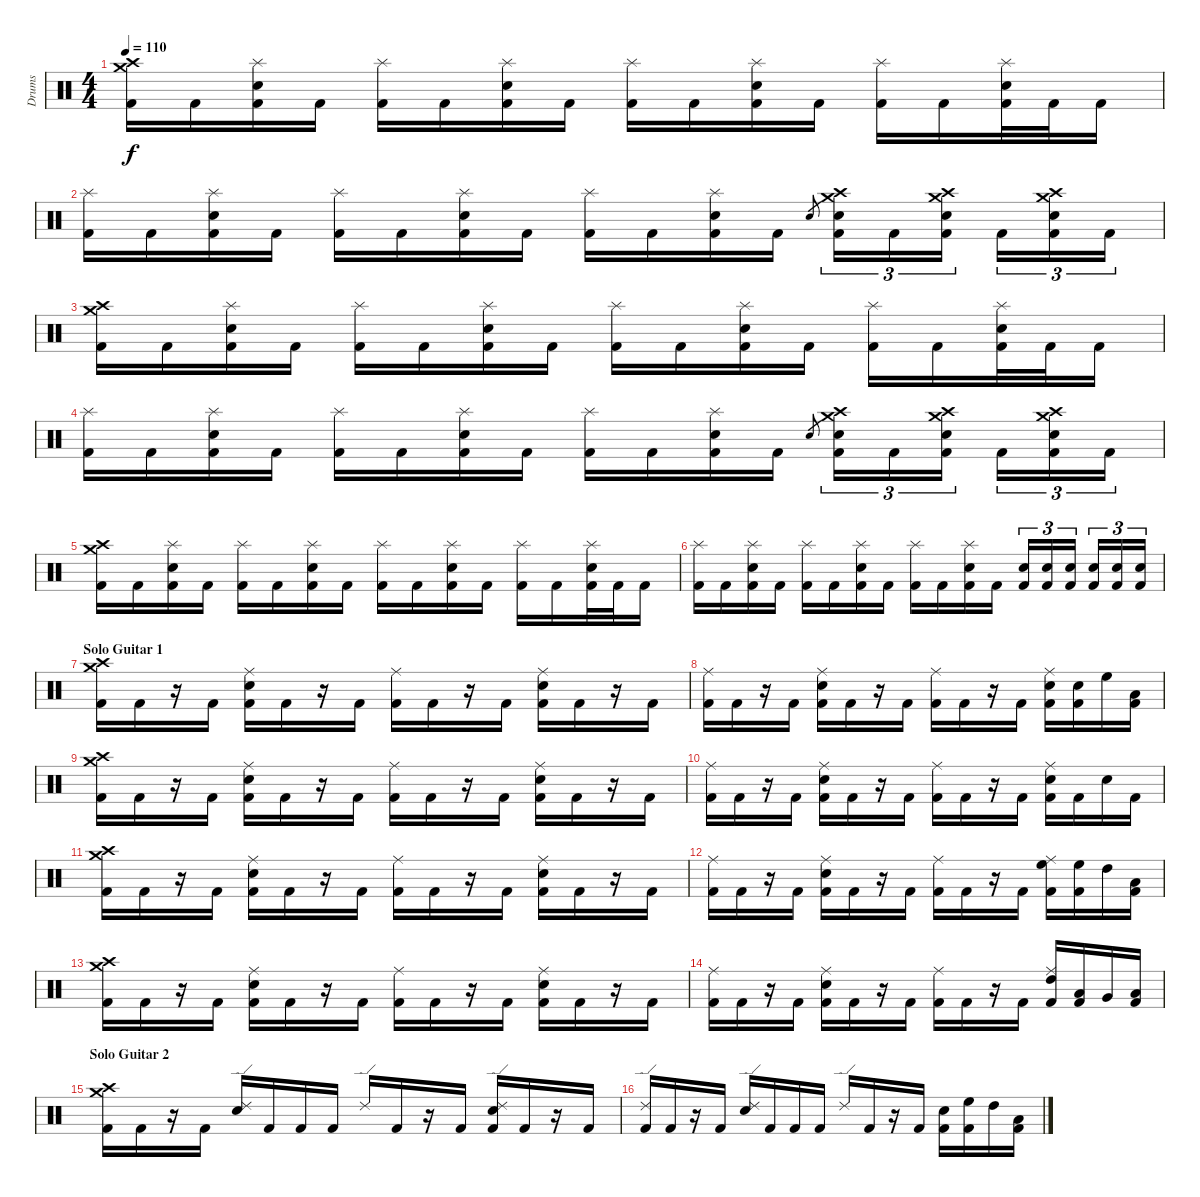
\track ("Drums" "Drums") {instrument percussion}
\staff {score}
\articulation defaults
\ts (4 4)
\tempo 110
\clef neutral
\ks c
("Crash medium (hit)" "Crash high (hit)" "Kick (hit) 2").16{dy f} "Kick (hit) 2".16 ("Splash (hit)" "Electric Snare (hit)" "Kick (hit) 2").16 "Kick (hit) 2".16 ("Splash (hit)" "Kick (hit) 2").16 "Kick (hit) 2".16 ("Splash (hit)" "Electric Snare (hit)" "Kick (hit) 2").16 "Kick (hit) 2".16 ("Splash (hit)" "Kick (hit) 2").16 "Kick (hit) 2".16 ("Splash (hit)" "Electric Snare (hit)" "Kick (hit) 2").16 "Kick (hit) 2".16 ("Splash (hit)" "Kick (hit) 2").16 "Kick (hit) 2".16 ("Splash (hit)" "Electric Snare (hit)" "Kick (hit) 2").32 "Kick (hit) 2".32 "Kick (hit) 2".16 |
("Splash (hit)" "Kick (hit) 2").16 "Kick (hit) 2".16 ("Splash (hit)" "Electric Snare (hit)" "Kick (hit) 2").16 "Kick (hit) 2".16 ("Splash (hit)" "Kick (hit) 2").16 "Kick (hit) 2".16 ("Splash (hit)" "Electric Snare (hit)" "Kick (hit) 2").16 "Kick (hit) 2".16 ("Splash (hit)" "Kick (hit) 2").16 "Kick (hit) 2".16 ("Splash (hit)" "Electric Snare (hit)" "Kick (hit) 2").16 "Kick (hit) 2".16 "Electric Snare (hit)".8{gr} ("Crash medium (hit)" "Crash high (hit)" "Electric Snare (hit)" "Kick (hit) 2").16{tu (3 2)} "Kick (hit) 2".16{tu (3 2)} ("Crash medium (hit)" "Crash high (hit)" "Electric Snare (hit)" "Kick (hit) 2").16{tu (3 2)} "Kick (hit) 2".16{tu (3 2)} ("Crash medium (hit)" "Crash high (hit)" "Electric Snare (hit)" "Kick (hit) 2").16{tu (3 2)} "Kick (hit) 2".16{tu (3 2)} |
("Crash medium (hit)" "Crash high (hit)" "Kick (hit) 2").16 "Kick (hit) 2".16 ("Splash (hit)" "Electric Snare (hit)" "Kick (hit) 2").16 "Kick (hit) 2".16 ("Splash (hit)" "Kick (hit) 2").16 "Kick (hit) 2".16 ("Splash (hit)" "Electric Snare (hit)" "Kick (hit) 2").16 "Kick (hit) 2".16 ("Splash (hit)" "Kick (hit) 2").16 "Kick (hit) 2".16 ("Splash (hit)" "Electric Snare (hit)" "Kick (hit) 2").16 "Kick (hit) 2".16 ("Splash (hit)" "Kick (hit) 2").16 "Kick (hit) 2".16 ("Splash (hit)" "Electric Snare (hit)" "Kick (hit) 2").32 "Kick (hit) 2".32 "Kick (hit) 2".16 |
("Splash (hit)" "Kick (hit) 2").16 "Kick (hit) 2".16 ("Splash (hit)" "Electric Snare (hit)" "Kick (hit) 2").16 "Kick (hit) 2".16 ("Splash (hit)" "Kick (hit) 2").16 "Kick (hit) 2".16 ("Splash (hit)" "Electric Snare (hit)" "Kick (hit) 2").16 "Kick (hit) 2".16 ("Splash (hit)" "Kick (hit) 2").16 "Kick (hit) 2".16 ("Splash (hit)" "Electric Snare (hit)" "Kick (hit) 2").16 "Kick (hit) 2".16 "Electric Snare (hit)".8{gr} ("Crash medium (hit)" "Crash high (hit)" "Electric Snare (hit)" "Kick (hit) 2").16{tu (3 2)} "Kick (hit) 2".16{tu (3 2)} ("Crash medium (hit)" "Crash high (hit)" "Electric Snare (hit)" "Kick (hit) 2").16{tu (3 2)} "Kick (hit) 2".16{tu (3 2)} ("Crash medium (hit)" "Crash high (hit)" "Electric Snare (hit)" "Kick (hit) 2").16{tu (3 2)} "Kick (hit) 2".16{tu (3 2)} |
("Crash medium (hit)" "Crash high (hit)" "Kick (hit) 2").16 "Kick (hit) 2".16 ("Splash (hit)" "Electric Snare (hit)" "Kick (hit) 2").16 "Kick (hit) 2".16 ("Splash (hit)" "Kick (hit) 2").16 "Kick (hit) 2".16 ("Splash (hit)" "Electric Snare (hit)" "Kick (hit) 2").16 "Kick (hit) 2".16 ("Splash (hit)" "Kick (hit) 2").16 "Kick (hit) 2".16 ("Splash (hit)" "Electric Snare (hit)" "Kick (hit) 2").16 "Kick (hit) 2".16 ("Splash (hit)" "Kick (hit) 2").16 "Kick (hit) 2".16 ("Splash (hit)" "Electric Snare (hit)" "Kick (hit) 2").32 "Kick (hit) 2".32 "Kick (hit) 2".16 |
("Splash (hit)" "Kick (hit) 2").16 "Kick (hit) 2".16 ("Splash (hit)" "Electric Snare (hit)" "Kick (hit) 2").16 "Kick (hit) 2".16 ("Splash (hit)" "Kick (hit) 2").16 "Kick (hit) 2".16 ("Splash (hit)" "Electric Snare (hit)" "Kick (hit) 2").16 "Kick (hit) 2".16 ("Splash (hit)" "Kick (hit) 2").16 "Kick (hit) 2".16 ("Splash (hit)" "Electric Snare (hit)" "Kick (hit) 2").16 "Kick (hit) 2".16 ("Electric Snare (hit)" "Kick (hit) 2").16{tu (3 2)} ("Electric Snare (hit)" "Kick (hit) 2").16{tu (3 2)} ("Electric Snare (hit)" "Kick (hit) 2").16{tu (3 2)} ("Electric Snare (hit)" "Kick (hit) 2").16{tu (3 2)} ("Electric Snare (hit)" "Kick (hit) 2").16{tu (3 2)} ("Electric Snare (hit)" "Kick (hit) 2").16{tu (3 2)} |
\section ("" "Solo Guitar 1")
("Crash medium (hit)" "Crash high (hit)" "Kick (hit) 2").16 "Kick (hit) 2".16 r.16 "Kick (hit) 2".16 ("Ride (middle)" "Electric Snare (hit)" "Kick (hit) 2").16 "Kick (hit) 2".16 r.16 "Kick (hit) 2".16 ("Ride (middle)" "Kick (hit) 2").16 "Kick (hit) 2".16 r.16 "Kick (hit) 2".16 ("Ride (middle)" "Electric Snare (hit)" "Kick (hit) 2").16 "Kick (hit) 2".16 r.16 "Kick (hit) 2".16 |
("Ride (middle)" "Kick (hit) 2").16 "Kick (hit) 2".16 r.16 "Kick (hit) 2".16 ("Ride (middle)" "Electric Snare (hit)" "Kick (hit) 2").16 "Kick (hit) 2".16 r.16 "Kick (hit) 2".16 ("Ride (middle)" "Kick (hit) 2").16 "Kick (hit) 2".16 r.16 "Kick (hit) 2".16 ("Ride (middle)" "Electric Snare (hit)" "Kick (hit) 2").16 ("Electric Snare (hit)" "Kick (hit) 2").16 "High Floor Tom (hit)".16 ("Low Tom (hit)" "Kick (hit) 2").16 |
("Crash medium (hit)" "Crash high (hit)" "Kick (hit) 2").16 "Kick (hit) 2".16 r.16 "Kick (hit) 2".16 ("Ride (middle)" "Electric Snare (hit)" "Kick (hit) 2").16 "Kick (hit) 2".16 r.16 "Kick (hit) 2".16 ("Ride (middle)" "Kick (hit) 2").16 "Kick (hit) 2".16 r.16 "Kick (hit) 2".16 ("Ride (middle)" "Electric Snare (hit)" "Kick (hit) 2").16 "Kick (hit) 2".16 r.16 "Kick (hit) 2".16 |
("Ride (middle)" "Kick (hit) 2").16 "Kick (hit) 2".16 r.16 "Kick (hit) 2".16 ("Ride (middle)" "Electric Snare (hit)" "Kick (hit) 2").16 "Kick (hit) 2".16 r.16 "Kick (hit) 2".16 ("Ride (middle)" "Kick (hit) 2").16 "Kick (hit) 2".16 r.16 "Kick (hit) 2".16 ("Ride (middle)" "Electric Snare (hit)" "Kick (hit) 2").16 "Kick (hit) 2".16 "Electric Snare (hit)".16 "Kick (hit) 2".16 |
("Crash medium (hit)" "Crash high (hit)" "Kick (hit) 2").16 "Kick (hit) 2".16 r.16 "Kick (hit) 2".16 ("Ride (middle)" "Electric Snare (hit)" "Kick (hit) 2").16 "Kick (hit) 2".16 r.16 "Kick (hit) 2".16 ("Ride (middle)" "Kick (hit) 2").16 "Kick (hit) 2".16 r.16 "Kick (hit) 2".16 ("Ride (middle)" "Electric Snare (hit)" "Kick (hit) 2").16 "Kick (hit) 2".16 r.16 "Kick (hit) 2".16 |
("Ride (middle)" "Kick (hit) 2").16 "Kick (hit) 2".16 r.16 "Kick (hit) 2".16 ("Ride (middle)" "Electric Snare (hit)" "Kick (hit) 2").16 "Kick (hit) 2".16 r.16 "Kick (hit) 2".16 ("Ride (middle)" "Kick (hit) 2").16 "Kick (hit) 2".16 r.16 "Kick (hit) 2".16 ("Ride (middle)" "High Floor Tom (hit)" "Kick (hit) 2").16 ("High Floor Tom (hit)" "Kick (hit) 2").16 "High Tom (hit)".16 ("Low Tom (hit)" "Kick (hit) 2").16 |
("Crash medium (hit)" "Crash high (hit)" "Kick (hit) 2").16 "Kick (hit) 2".16 r.16 "Kick (hit) 2".16 ("Ride (middle)" "Electric Snare (hit)" "Kick (hit) 2").16 "Kick (hit) 2".16 r.16 "Kick (hit) 2".16 ("Ride (middle)" "Kick (hit) 2").16 "Kick (hit) 2".16 r.16 "Kick (hit) 2".16 ("Ride (middle)" "Electric Snare (hit)" "Kick (hit) 2").16 "Kick (hit) 2".16 r.16 "Kick (hit) 2".16 |
("Ride (middle)" "Kick (hit) 2").16 "Kick (hit) 2".16 r.16 "Kick (hit) 2".16 ("Ride (middle)" "Electric Snare (hit)" "Kick (hit) 2").16 "Kick (hit) 2".16 r.16 "Kick (hit) 2".16 ("Ride (middle)" "Kick (hit) 2").16 "Kick (hit) 2".16 r.16 "Kick (hit) 2".16 ("Ride (middle)" "High Tom (hit)" "Kick (hit) 2").16 ("Low Tom (hit)" "Kick (hit) 2").16 "Very Low Tom (hit)".16 ("Low Floor Tom (hit)" "Kick (hit) 2").16 |
\section ("" "Solo Guitar 2")
("Crash medium (hit)" "Crash high (hit)" "Kick (hit) 2").16 "Kick (hit) 2".16 r.16 "Kick (hit) 2".16 ("Ride (edge) 2" "Electric Snare (hit)").16 "Kick (hit) 2".16 "Kick (hit) 2".16 "Kick (hit) 2".16 "Ride (edge) 2".16 "Kick (hit) 2".16 r.16 "Kick (hit) 2".16 ("Ride (edge) 2" "Electric Snare (hit)" "Kick (hit) 2").16 "Kick (hit) 2".16 r.16 "Kick (hit) 2".16 |
("Ride (edge) 2" "Kick (hit) 2").16 "Kick (hit) 2".16 r.16 "Kick (hit) 2".16 ("Ride (edge) 2" "Electric Snare (hit)").16 "Kick (hit) 2".16 "Kick (hit) 2".16 "Kick (hit) 2".16 "Ride (edge) 2".16 "Kick (hit) 2".16 r.16 "Kick (hit) 2".16 ("Electric Snare (hit)" "Kick (hit) 2").16 ("High Floor Tom (hit)" "Kick (hit) 2").16 "High Tom (hit)".16 ("Low Tom (hit)" "Kick (hit) 2").16
